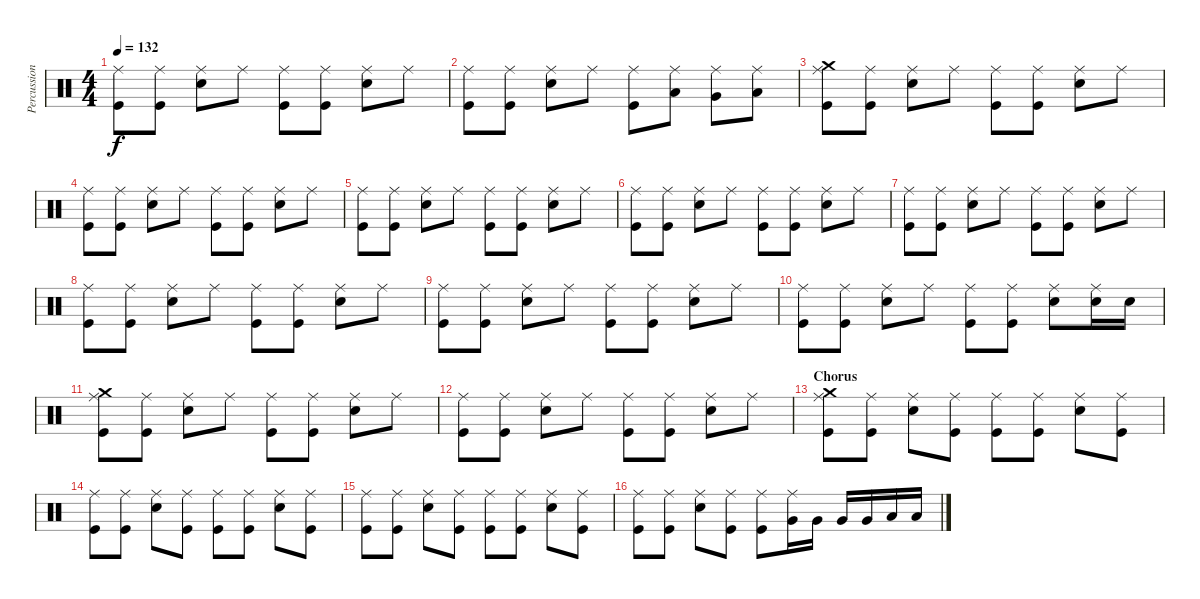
\track ("Percussions" "Percussion") {instrument percussion}
\staff {score}
\articulation defaults
\ts (4 4)
\tempo 132
\clef neutral
\ks c
("Ride (middle)" "Kick (hit)").8{dy f} ("Ride (middle)" "Kick (hit)").8 ("Ride (middle)" "Snare (hit) 2").8 "Ride (middle)".8 ("Ride (middle)" "Kick (hit)").8 ("Ride (middle)" "Kick (hit)").8 ("Ride (middle)" "Snare (hit) 2").8 "Ride (middle)".8 |
("Ride (middle)" "Kick (hit)").8 ("Ride (middle)" "Kick (hit)").8 ("Ride (middle)" "Snare (hit) 2").8 "Ride (middle)".8 ("Ride (middle)" "Kick (hit)").8 ("Ride (middle)" "Low Tom (hit)").8 ("Ride (middle)" "Very Low Tom (hit)").8 ("Ride (middle)" "Low Floor Tom (hit)").8 |
("Ride (middle)" "Crash medium (hit)" "Kick (hit)").8 ("Ride (middle)" "Kick (hit)").8 ("Ride (middle)" "Snare (hit) 2").8 "Ride (middle)".8 ("Ride (middle)" "Kick (hit)").8 ("Ride (middle)" "Kick (hit)").8 ("Ride (middle)" "Snare (hit) 2").8 "Ride (middle)".8 |
("Ride (middle)" "Kick (hit)").8 ("Ride (middle)" "Kick (hit)").8 ("Ride (middle)" "Snare (hit) 2").8 "Ride (middle)".8 ("Ride (middle)" "Kick (hit)").8 ("Ride (middle)" "Kick (hit)").8 ("Ride (middle)" "Snare (hit) 2").8 "Ride (middle)".8 |
("Ride (middle)" "Kick (hit)").8 ("Ride (middle)" "Kick (hit)").8 ("Ride (middle)" "Snare (hit) 2").8 "Ride (middle)".8 ("Ride (middle)" "Kick (hit)").8 ("Ride (middle)" "Kick (hit)").8 ("Ride (middle)" "Snare (hit) 2").8 "Ride (middle)".8 |
("Ride (middle)" "Kick (hit)").8 ("Ride (middle)" "Kick (hit)").8 ("Ride (middle)" "Snare (hit) 2").8 "Ride (middle)".8 ("Ride (middle)" "Kick (hit)").8 ("Ride (middle)" "Kick (hit)").8 ("Ride (middle)" "Snare (hit) 2").8 "Ride (middle)".8 |
("Ride (middle)" "Kick (hit)").8 ("Ride (middle)" "Kick (hit)").8 ("Ride (middle)" "Snare (hit) 2").8 "Ride (middle)".8 ("Ride (middle)" "Kick (hit)").8 ("Ride (middle)" "Kick (hit)").8 ("Ride (middle)" "Snare (hit) 2").8 "Ride (middle)".8 |
("Ride (middle)" "Kick (hit)").8 ("Ride (middle)" "Kick (hit)").8 ("Ride (middle)" "Snare (hit) 2").8 "Ride (middle)".8 ("Ride (middle)" "Kick (hit)").8 ("Ride (middle)" "Kick (hit)").8 ("Ride (middle)" "Snare (hit) 2").8 "Ride (middle)".8 |
("Ride (middle)" "Kick (hit)").8 ("Ride (middle)" "Kick (hit)").8 ("Ride (middle)" "Snare (hit) 2").8 "Ride (middle)".8 ("Ride (middle)" "Kick (hit)").8 ("Ride (middle)" "Kick (hit)").8 ("Ride (middle)" "Snare (hit) 2").8 "Ride (middle)".8 |
("Ride (middle)" "Kick (hit)").8 ("Ride (middle)" "Kick (hit)").8 ("Ride (middle)" "Snare (hit) 2").8 "Ride (middle)".8 ("Ride (middle)" "Kick (hit)").8 ("Ride (middle)" "Kick (hit)").8 ("Ride (middle)" "Snare (hit) 2").8 ("Ride (middle)" "Snare (hit) 2").16 "Snare (hit) 2".16 |
("Ride (middle)" "Crash medium (hit)" "Kick (hit)").8 ("Ride (middle)" "Kick (hit)").8 ("Ride (middle)" "Snare (hit) 2").8 "Ride (middle)".8 ("Ride (middle)" "Kick (hit)").8 ("Ride (middle)" "Kick (hit)").8 ("Ride (middle)" "Snare (hit) 2").8 "Ride (middle)".8 |
("Ride (middle)" "Kick (hit)").8 ("Ride (middle)" "Kick (hit)").8 ("Ride (middle)" "Snare (hit) 2").8 "Ride (middle)".8 ("Ride (middle)" "Kick (hit)").8 ("Ride (middle)" "Kick (hit)").8 ("Ride (middle)" "Snare (hit) 2").8 "Ride (middle)".8 |
\section ("" "Chorus")
("Ride (middle)" "Crash medium (hit)" "Kick (hit)").8 ("Ride (middle)" "Kick (hit)").8 ("Ride (middle)" "Snare (hit) 2").8 ("Ride (middle)" "Kick (hit)").8 ("Ride (middle)" "Kick (hit)").8 ("Ride (middle)" "Kick (hit)").8 ("Ride (middle)" "Snare (hit) 2").8 ("Ride (middle)" "Kick (hit)").8 |
("Ride (middle)" "Kick (hit)").8 ("Ride (middle)" "Kick (hit)").8 ("Ride (middle)" "Snare (hit) 2").8 ("Ride (middle)" "Kick (hit)").8 ("Ride (middle)" "Kick (hit)").8 ("Ride (middle)" "Kick (hit)").8 ("Ride (middle)" "Snare (hit) 2").8 ("Ride (middle)" "Kick (hit)").8 |
("Ride (middle)" "Kick (hit)").8 ("Ride (middle)" "Kick (hit)").8 ("Ride (middle)" "Snare (hit) 2").8 ("Ride (middle)" "Kick (hit)").8 ("Ride (middle)" "Kick (hit)").8 ("Ride (middle)" "Kick (hit)").8 ("Ride (middle)" "Snare (hit) 2").8 ("Ride (middle)" "Kick (hit)").8 |
("Ride (middle)" "Kick (hit)").8 ("Ride (middle)" "Kick (hit)").8 ("Ride (middle)" "Snare (hit) 2").8 ("Ride (middle)" "Kick (hit)").8 ("Ride (middle)" "Kick (hit)").8 ("Ride (middle)" "Very Low Tom (hit)").16 "Very Low Tom (hit)".16 "Very Low Tom (hit)".16 "Very Low Tom (hit)".16 "Low Floor Tom (hit)".16 "Low Floor Tom (hit)".16
